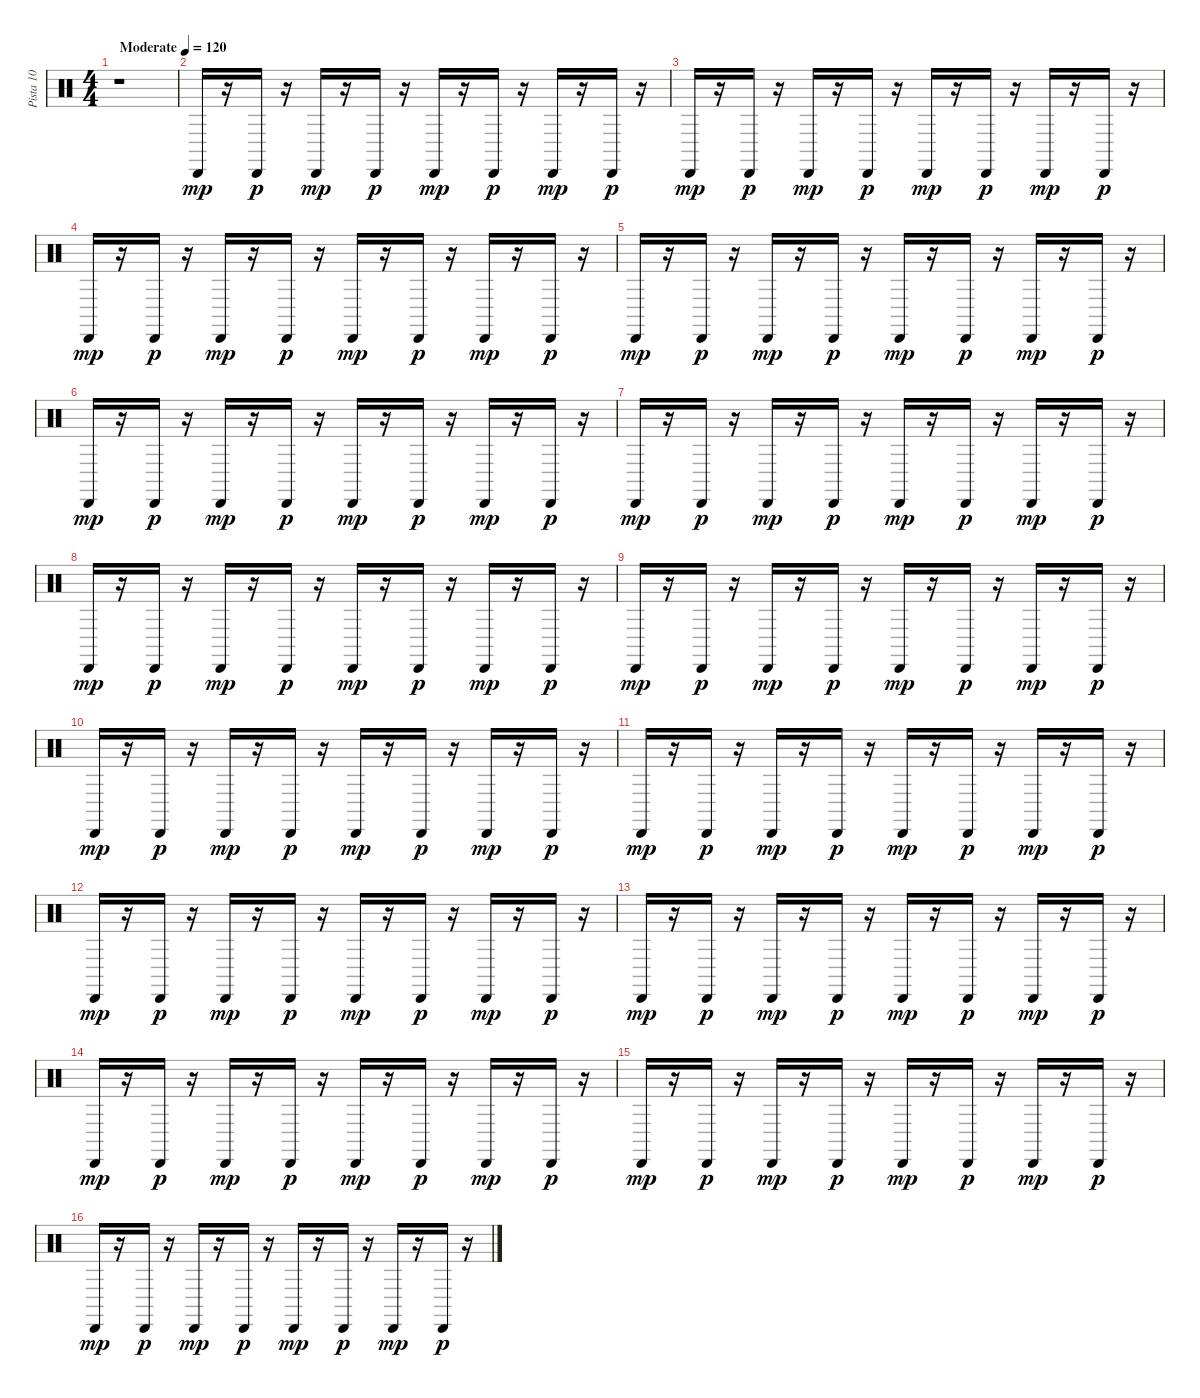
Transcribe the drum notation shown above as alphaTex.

\track ("Pista 10" "Pista 10") {instrument percussion}
\staff {score}
\articulation defaults
\ts (4 4)
\tempo (120 "Moderate")
\clef neutral
\ks c
r.1{dy mp} |
"Cabasa (hit)".16 r.16 "Cabasa (hit)".16{dy p} r.16 "Cabasa (hit)".16{dy mp} r.16 "Cabasa (hit)".16{dy p} r.16 "Cabasa (hit)".16{dy mp} r.16 "Cabasa (hit)".16{dy p} r.16 "Cabasa (hit)".16{dy mp} r.16 "Cabasa (hit)".16{dy p} r.16 |
"Cabasa (hit)".16{dy mp} r.16 "Cabasa (hit)".16{dy p} r.16 "Cabasa (hit)".16{dy mp} r.16 "Cabasa (hit)".16{dy p} r.16 "Cabasa (hit)".16{dy mp} r.16 "Cabasa (hit)".16{dy p} r.16 "Cabasa (hit)".16{dy mp} r.16 "Cabasa (hit)".16{dy p} r.16 |
"Cabasa (hit)".16{dy mp} r.16 "Cabasa (hit)".16{dy p} r.16 "Cabasa (hit)".16{dy mp} r.16 "Cabasa (hit)".16{dy p} r.16 "Cabasa (hit)".16{dy mp} r.16 "Cabasa (hit)".16{dy p} r.16 "Cabasa (hit)".16{dy mp} r.16 "Cabasa (hit)".16{dy p} r.16 |
"Cabasa (hit)".16{dy mp} r.16 "Cabasa (hit)".16{dy p} r.16 "Cabasa (hit)".16{dy mp} r.16 "Cabasa (hit)".16{dy p} r.16 "Cabasa (hit)".16{dy mp} r.16 "Cabasa (hit)".16{dy p} r.16 "Cabasa (hit)".16{dy mp} r.16 "Cabasa (hit)".16{dy p} r.16 |
"Cabasa (hit)".16{dy mp} r.16 "Cabasa (hit)".16{dy p} r.16 "Cabasa (hit)".16{dy mp} r.16 "Cabasa (hit)".16{dy p} r.16 "Cabasa (hit)".16{dy mp} r.16 "Cabasa (hit)".16{dy p} r.16 "Cabasa (hit)".16{dy mp} r.16 "Cabasa (hit)".16{dy p} r.16 |
"Cabasa (hit)".16{dy mp} r.16 "Cabasa (hit)".16{dy p} r.16 "Cabasa (hit)".16{dy mp} r.16 "Cabasa (hit)".16{dy p} r.16 "Cabasa (hit)".16{dy mp} r.16 "Cabasa (hit)".16{dy p} r.16 "Cabasa (hit)".16{dy mp} r.16 "Cabasa (hit)".16{dy p} r.16 |
"Cabasa (hit)".16{dy mp} r.16 "Cabasa (hit)".16{dy p} r.16 "Cabasa (hit)".16{dy mp} r.16 "Cabasa (hit)".16{dy p} r.16 "Cabasa (hit)".16{dy mp} r.16 "Cabasa (hit)".16{dy p} r.16 "Cabasa (hit)".16{dy mp} r.16 "Cabasa (hit)".16{dy p} r.16 |
"Cabasa (hit)".16{dy mp} r.16 "Cabasa (hit)".16{dy p} r.16 "Cabasa (hit)".16{dy mp} r.16 "Cabasa (hit)".16{dy p} r.16 "Cabasa (hit)".16{dy mp} r.16 "Cabasa (hit)".16{dy p} r.16 "Cabasa (hit)".16{dy mp} r.16 "Cabasa (hit)".16{dy p} r.16 |
"Cabasa (hit)".16{dy mp} r.16 "Cabasa (hit)".16{dy p} r.16 "Cabasa (hit)".16{dy mp} r.16 "Cabasa (hit)".16{dy p} r.16 "Cabasa (hit)".16{dy mp} r.16 "Cabasa (hit)".16{dy p} r.16 "Cabasa (hit)".16{dy mp} r.16 "Cabasa (hit)".16{dy p} r.16 |
"Cabasa (hit)".16{dy mp} r.16 "Cabasa (hit)".16{dy p} r.16 "Cabasa (hit)".16{dy mp} r.16 "Cabasa (hit)".16{dy p} r.16 "Cabasa (hit)".16{dy mp} r.16 "Cabasa (hit)".16{dy p} r.16 "Cabasa (hit)".16{dy mp} r.16 "Cabasa (hit)".16{dy p} r.16 |
"Cabasa (hit)".16{dy mp} r.16 "Cabasa (hit)".16{dy p} r.16 "Cabasa (hit)".16{dy mp} r.16 "Cabasa (hit)".16{dy p} r.16 "Cabasa (hit)".16{dy mp} r.16 "Cabasa (hit)".16{dy p} r.16 "Cabasa (hit)".16{dy mp} r.16 "Cabasa (hit)".16{dy p} r.16 |
"Cabasa (hit)".16{dy mp} r.16 "Cabasa (hit)".16{dy p} r.16 "Cabasa (hit)".16{dy mp} r.16 "Cabasa (hit)".16{dy p} r.16 "Cabasa (hit)".16{dy mp} r.16 "Cabasa (hit)".16{dy p} r.16 "Cabasa (hit)".16{dy mp} r.16 "Cabasa (hit)".16{dy p} r.16 |
"Cabasa (hit)".16{dy mp} r.16 "Cabasa (hit)".16{dy p} r.16 "Cabasa (hit)".16{dy mp} r.16 "Cabasa (hit)".16{dy p} r.16 "Cabasa (hit)".16{dy mp} r.16 "Cabasa (hit)".16{dy p} r.16 "Cabasa (hit)".16{dy mp} r.16 "Cabasa (hit)".16{dy p} r.16 |
"Cabasa (hit)".16{dy mp} r.16 "Cabasa (hit)".16{dy p} r.16 "Cabasa (hit)".16{dy mp} r.16 "Cabasa (hit)".16{dy p} r.16 "Cabasa (hit)".16{dy mp} r.16 "Cabasa (hit)".16{dy p} r.16 "Cabasa (hit)".16{dy mp} r.16 "Cabasa (hit)".16{dy p} r.16 |
"Cabasa (hit)".16{dy mp} r.16 "Cabasa (hit)".16{dy p} r.16 "Cabasa (hit)".16{dy mp} r.16 "Cabasa (hit)".16{dy p} r.16 "Cabasa (hit)".16{dy mp} r.16 "Cabasa (hit)".16{dy p} r.16 "Cabasa (hit)".16{dy mp} r.16 "Cabasa (hit)".16{dy p} r.16
